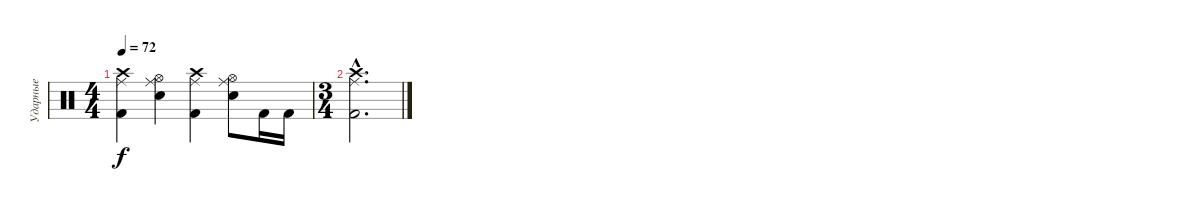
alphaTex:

\track ("Ударные" "Ударные") {instrument percussion}
\staff {score}
\articulation defaults
\ts (4 4)
\tempo 72
\clef neutral
\ks c
("Ride (middle)" "Crash high (hit)" "Kick (hit) 2").4{dy f} ("Ride (middle)" "Hi-Hat (open)" "Snare (hit) 2").4 ("Ride (middle)" "Crash high (hit)" "Kick (hit) 2").4 ("Ride (middle)" "Hi-Hat (open)" "Snare (hit) 2").8 "Kick (hit) 2".16 "Kick (hit) 2".16 |
\ts (3 4)
("Ride (middle)"{hac} "Crash high (hit)"{hac} "Kick (hit) 2"{hac}).2{d}
